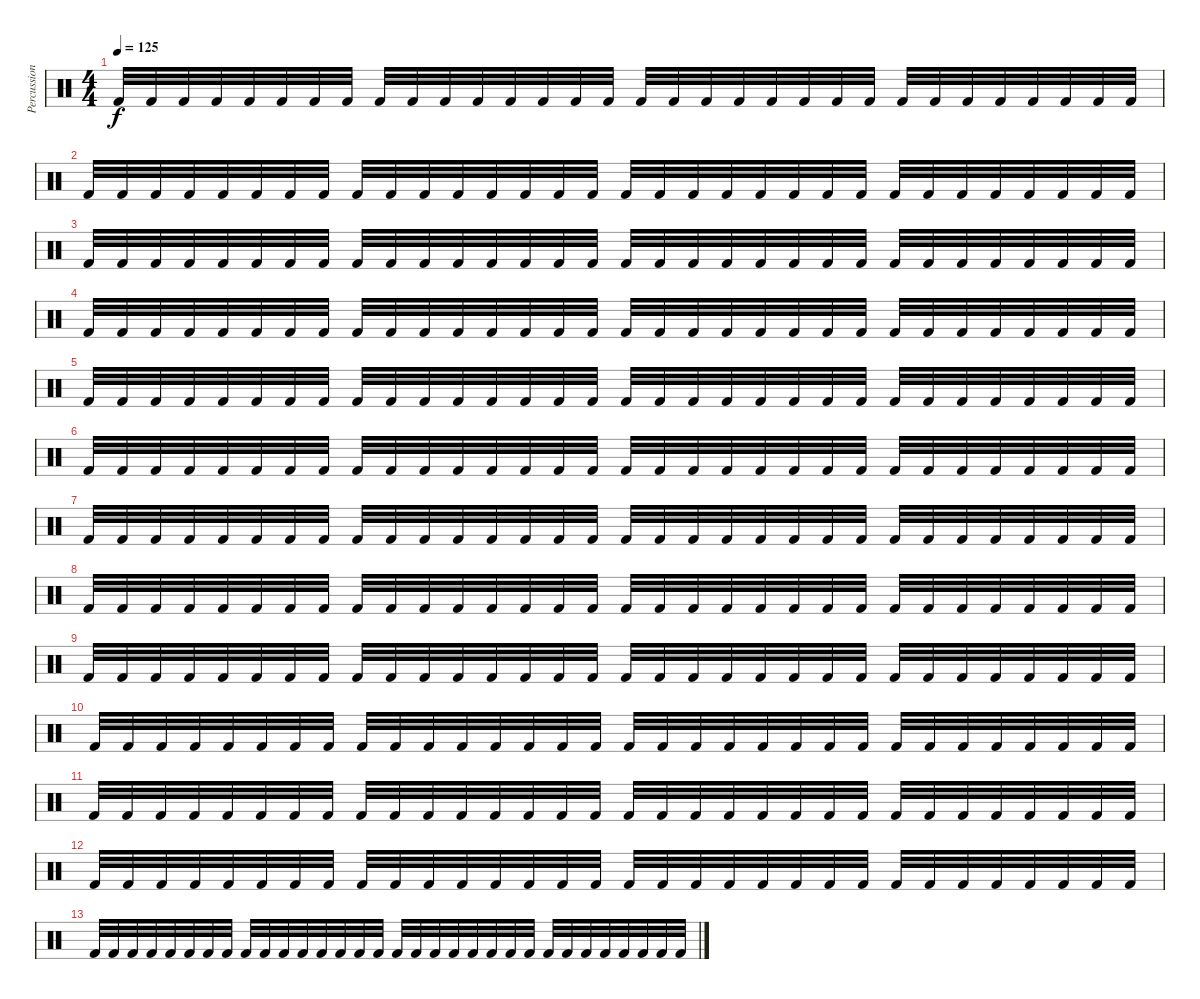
\track ("Percussion" "Percussion") {instrument percussion}
\staff {score}
\articulation defaults
\ts (4 4)
\tempo 125
\clef neutral
\ks c "Kick (hit) 2".32{dy f} "Kick (hit) 2".32 "Kick (hit) 2".32 "Kick (hit) 2".32 "Kick (hit) 2".32 "Kick (hit) 2".32 "Kick (hit) 2".32 "Kick (hit) 2".32 "Kick (hit) 2".32 "Kick (hit) 2".32 "Kick (hit) 2".32 "Kick (hit) 2".32 "Kick (hit) 2".32 "Kick (hit) 2".32 "Kick (hit) 2".32 "Kick (hit) 2".32 "Kick (hit) 2".32 "Kick (hit) 2".32 "Kick (hit) 2".32 "Kick (hit) 2".32 "Kick (hit) 2".32 "Kick (hit) 2".32 "Kick (hit) 2".32 "Kick (hit) 2".32 "Kick (hit) 2".32 "Kick (hit) 2".32 "Kick (hit) 2".32 "Kick (hit) 2".32 "Kick (hit) 2".32 "Kick (hit) 2".32 "Kick (hit) 2".32 "Kick (hit) 2".32
|
"Kick (hit) 2".32 "Kick (hit) 2".32 "Kick (hit) 2".32 "Kick (hit) 2".32 "Kick (hit) 2".32 "Kick (hit) 2".32 "Kick (hit) 2".32 "Kick (hit) 2".32 "Kick (hit) 2".32 "Kick (hit) 2".32 "Kick (hit) 2".32 "Kick (hit) 2".32 "Kick (hit) 2".32 "Kick (hit) 2".32 "Kick (hit) 2".32 "Kick (hit) 2".32 "Kick (hit) 2".32 "Kick (hit) 2".32 "Kick (hit) 2".32 "Kick (hit) 2".32 "Kick (hit) 2".32 "Kick (hit) 2".32 "Kick (hit) 2".32 "Kick (hit) 2".32 "Kick (hit) 2".32 "Kick (hit) 2".32 "Kick (hit) 2".32 "Kick (hit) 2".32 "Kick (hit) 2".32 "Kick (hit) 2".32 "Kick (hit) 2".32 "Kick (hit) 2".32 |
"Kick (hit) 2".32 "Kick (hit) 2".32 "Kick (hit) 2".32 "Kick (hit) 2".32 "Kick (hit) 2".32 "Kick (hit) 2".32 "Kick (hit) 2".32 "Kick (hit) 2".32 "Kick (hit) 2".32 "Kick (hit) 2".32 "Kick (hit) 2".32 "Kick (hit) 2".32 "Kick (hit) 2".32 "Kick (hit) 2".32 "Kick (hit) 2".32 "Kick (hit) 2".32 "Kick (hit) 2".32 "Kick (hit) 2".32 "Kick (hit) 2".32 "Kick (hit) 2".32 "Kick (hit) 2".32 "Kick (hit) 2".32 "Kick (hit) 2".32 "Kick (hit) 2".32 "Kick (hit) 2".32 "Kick (hit) 2".32 "Kick (hit) 2".32 "Kick (hit) 2".32 "Kick (hit) 2".32 "Kick (hit) 2".32 "Kick (hit) 2".32 "Kick (hit) 2".32 |
"Kick (hit) 2".32 "Kick (hit) 2".32 "Kick (hit) 2".32 "Kick (hit) 2".32 "Kick (hit) 2".32 "Kick (hit) 2".32 "Kick (hit) 2".32 "Kick (hit) 2".32 "Kick (hit) 2".32 "Kick (hit) 2".32 "Kick (hit) 2".32 "Kick (hit) 2".32 "Kick (hit) 2".32 "Kick (hit) 2".32 "Kick (hit) 2".32 "Kick (hit) 2".32 "Kick (hit) 2".32 "Kick (hit) 2".32 "Kick (hit) 2".32 "Kick (hit) 2".32 "Kick (hit) 2".32 "Kick (hit) 2".32 "Kick (hit) 2".32 "Kick (hit) 2".32 "Kick (hit) 2".32 "Kick (hit) 2".32 "Kick (hit) 2".32 "Kick (hit) 2".32 "Kick (hit) 2".32 "Kick (hit) 2".32 "Kick (hit) 2".32 "Kick (hit) 2".32 |
"Kick (hit) 2".32 "Kick (hit) 2".32 "Kick (hit) 2".32 "Kick (hit) 2".32 "Kick (hit) 2".32 "Kick (hit) 2".32 "Kick (hit) 2".32 "Kick (hit) 2".32 "Kick (hit) 2".32 "Kick (hit) 2".32 "Kick (hit) 2".32 "Kick (hit) 2".32 "Kick (hit) 2".32 "Kick (hit) 2".32 "Kick (hit) 2".32 "Kick (hit) 2".32 "Kick (hit) 2".32 "Kick (hit) 2".32 "Kick (hit) 2".32 "Kick (hit) 2".32 "Kick (hit) 2".32 "Kick (hit) 2".32 "Kick (hit) 2".32 "Kick (hit) 2".32 "Kick (hit) 2".32 "Kick (hit) 2".32 "Kick (hit) 2".32 "Kick (hit) 2".32 "Kick (hit) 2".32 "Kick (hit) 2".32 "Kick (hit) 2".32 "Kick (hit) 2".32 |
"Kick (hit) 2".32 "Kick (hit) 2".32 "Kick (hit) 2".32 "Kick (hit) 2".32 "Kick (hit) 2".32 "Kick (hit) 2".32 "Kick (hit) 2".32 "Kick (hit) 2".32 "Kick (hit) 2".32 "Kick (hit) 2".32 "Kick (hit) 2".32 "Kick (hit) 2".32 "Kick (hit) 2".32 "Kick (hit) 2".32 "Kick (hit) 2".32 "Kick (hit) 2".32 "Kick (hit) 2".32 "Kick (hit) 2".32 "Kick (hit) 2".32 "Kick (hit) 2".32 "Kick (hit) 2".32 "Kick (hit) 2".32 "Kick (hit) 2".32 "Kick (hit) 2".32 "Kick (hit) 2".32 "Kick (hit) 2".32 "Kick (hit) 2".32 "Kick (hit) 2".32 "Kick (hit) 2".32 "Kick (hit) 2".32 "Kick (hit) 2".32 "Kick (hit) 2".32 |
"Kick (hit) 2".32 "Kick (hit) 2".32 "Kick (hit) 2".32 "Kick (hit) 2".32 "Kick (hit) 2".32 "Kick (hit) 2".32 "Kick (hit) 2".32 "Kick (hit) 2".32 "Kick (hit) 2".32 "Kick (hit) 2".32 "Kick (hit) 2".32 "Kick (hit) 2".32 "Kick (hit) 2".32 "Kick (hit) 2".32 "Kick (hit) 2".32 "Kick (hit) 2".32 "Kick (hit) 2".32 "Kick (hit) 2".32 "Kick (hit) 2".32 "Kick (hit) 2".32 "Kick (hit) 2".32 "Kick (hit) 2".32 "Kick (hit) 2".32 "Kick (hit) 2".32 "Kick (hit) 2".32 "Kick (hit) 2".32 "Kick (hit) 2".32 "Kick (hit) 2".32 "Kick (hit) 2".32 "Kick (hit) 2".32 "Kick (hit) 2".32 "Kick (hit) 2".32 |
"Kick (hit) 2".32 "Kick (hit) 2".32 "Kick (hit) 2".32 "Kick (hit) 2".32 "Kick (hit) 2".32 "Kick (hit) 2".32 "Kick (hit) 2".32 "Kick (hit) 2".32 "Kick (hit) 2".32 "Kick (hit) 2".32 "Kick (hit) 2".32 "Kick (hit) 2".32 "Kick (hit) 2".32 "Kick (hit) 2".32 "Kick (hit) 2".32 "Kick (hit) 2".32 "Kick (hit) 2".32 "Kick (hit) 2".32 "Kick (hit) 2".32 "Kick (hit) 2".32 "Kick (hit) 2".32 "Kick (hit) 2".32 "Kick (hit) 2".32 "Kick (hit) 2".32 "Kick (hit) 2".32 "Kick (hit) 2".32 "Kick (hit) 2".32 "Kick (hit) 2".32 "Kick (hit) 2".32 "Kick (hit) 2".32 "Kick (hit) 2".32 "Kick (hit) 2".32 |
"Kick (hit) 2".32 "Kick (hit) 2".32 "Kick (hit) 2".32 "Kick (hit) 2".32 "Kick (hit) 2".32 "Kick (hit) 2".32 "Kick (hit) 2".32 "Kick (hit) 2".32 "Kick (hit) 2".32 "Kick (hit) 2".32 "Kick (hit) 2".32 "Kick (hit) 2".32 "Kick (hit) 2".32 "Kick (hit) 2".32 "Kick (hit) 2".32 "Kick (hit) 2".32 "Kick (hit) 2".32 "Kick (hit) 2".32 "Kick (hit) 2".32 "Kick (hit) 2".32 "Kick (hit) 2".32 "Kick (hit) 2".32 "Kick (hit) 2".32 "Kick (hit) 2".32 "Kick (hit) 2".32 "Kick (hit) 2".32 "Kick (hit) 2".32 "Kick (hit) 2".32 "Kick (hit) 2".32 "Kick (hit) 2".32 "Kick (hit) 2".32 "Kick (hit) 2".32 |
"Kick (hit) 2".32 "Kick (hit) 2".32 "Kick (hit) 2".32 "Kick (hit) 2".32 "Kick (hit) 2".32 "Kick (hit) 2".32 "Kick (hit) 2".32 "Kick (hit) 2".32 "Kick (hit) 2".32 "Kick (hit) 2".32 "Kick (hit) 2".32 "Kick (hit) 2".32 "Kick (hit) 2".32 "Kick (hit) 2".32 "Kick (hit) 2".32 "Kick (hit) 2".32 "Kick (hit) 2".32 "Kick (hit) 2".32 "Kick (hit) 2".32 "Kick (hit) 2".32 "Kick (hit) 2".32 "Kick (hit) 2".32 "Kick (hit) 2".32 "Kick (hit) 2".32 "Kick (hit) 2".32 "Kick (hit) 2".32 "Kick (hit) 2".32 "Kick (hit) 2".32 "Kick (hit) 2".32 "Kick (hit) 2".32 "Kick (hit) 2".32 "Kick (hit) 2".32 |
"Kick (hit) 2".32 "Kick (hit) 2".32 "Kick (hit) 2".32 "Kick (hit) 2".32 "Kick (hit) 2".32 "Kick (hit) 2".32 "Kick (hit) 2".32 "Kick (hit) 2".32 "Kick (hit) 2".32 "Kick (hit) 2".32 "Kick (hit) 2".32 "Kick (hit) 2".32 "Kick (hit) 2".32 "Kick (hit) 2".32 "Kick (hit) 2".32 "Kick (hit) 2".32 "Kick (hit) 2".32 "Kick (hit) 2".32 "Kick (hit) 2".32 "Kick (hit) 2".32 "Kick (hit) 2".32 "Kick (hit) 2".32 "Kick (hit) 2".32 "Kick (hit) 2".32 "Kick (hit) 2".32 "Kick (hit) 2".32 "Kick (hit) 2".32 "Kick (hit) 2".32 "Kick (hit) 2".32 "Kick (hit) 2".32 "Kick (hit) 2".32 "Kick (hit) 2".32 |
"Kick (hit) 2".32 "Kick (hit) 2".32 "Kick (hit) 2".32 "Kick (hit) 2".32 "Kick (hit) 2".32 "Kick (hit) 2".32 "Kick (hit) 2".32 "Kick (hit) 2".32 "Kick (hit) 2".32 "Kick (hit) 2".32 "Kick (hit) 2".32 "Kick (hit) 2".32 "Kick (hit) 2".32 "Kick (hit) 2".32 "Kick (hit) 2".32 "Kick (hit) 2".32 "Kick (hit) 2".32 "Kick (hit) 2".32 "Kick (hit) 2".32 "Kick (hit) 2".32 "Kick (hit) 2".32 "Kick (hit) 2".32 "Kick (hit) 2".32 "Kick (hit) 2".32 "Kick (hit) 2".32 "Kick (hit) 2".32 "Kick (hit) 2".32 "Kick (hit) 2".32 "Kick (hit) 2".32 "Kick (hit) 2".32 "Kick (hit) 2".32 "Kick (hit) 2".32 |
"Kick (hit) 2".32 "Kick (hit) 2".32 "Kick (hit) 2".32 "Kick (hit) 2".32 "Kick (hit) 2".32 "Kick (hit) 2".32 "Kick (hit) 2".32 "Kick (hit) 2".32 "Kick (hit) 2".32 "Kick (hit) 2".32 "Kick (hit) 2".32 "Kick (hit) 2".32 "Kick (hit) 2".32 "Kick (hit) 2".32 "Kick (hit) 2".32 "Kick (hit) 2".32 "Kick (hit) 2".32 "Kick (hit) 2".32 "Kick (hit) 2".32 "Kick (hit) 2".32 "Kick (hit) 2".32 "Kick (hit) 2".32 "Kick (hit) 2".32 "Kick (hit) 2".32 "Kick (hit) 2".32 "Kick (hit) 2".32 "Kick (hit) 2".32 "Kick (hit) 2".32 "Kick (hit) 2".32 "Kick (hit) 2".32 "Kick (hit) 2".32 "Kick (hit) 2".32
